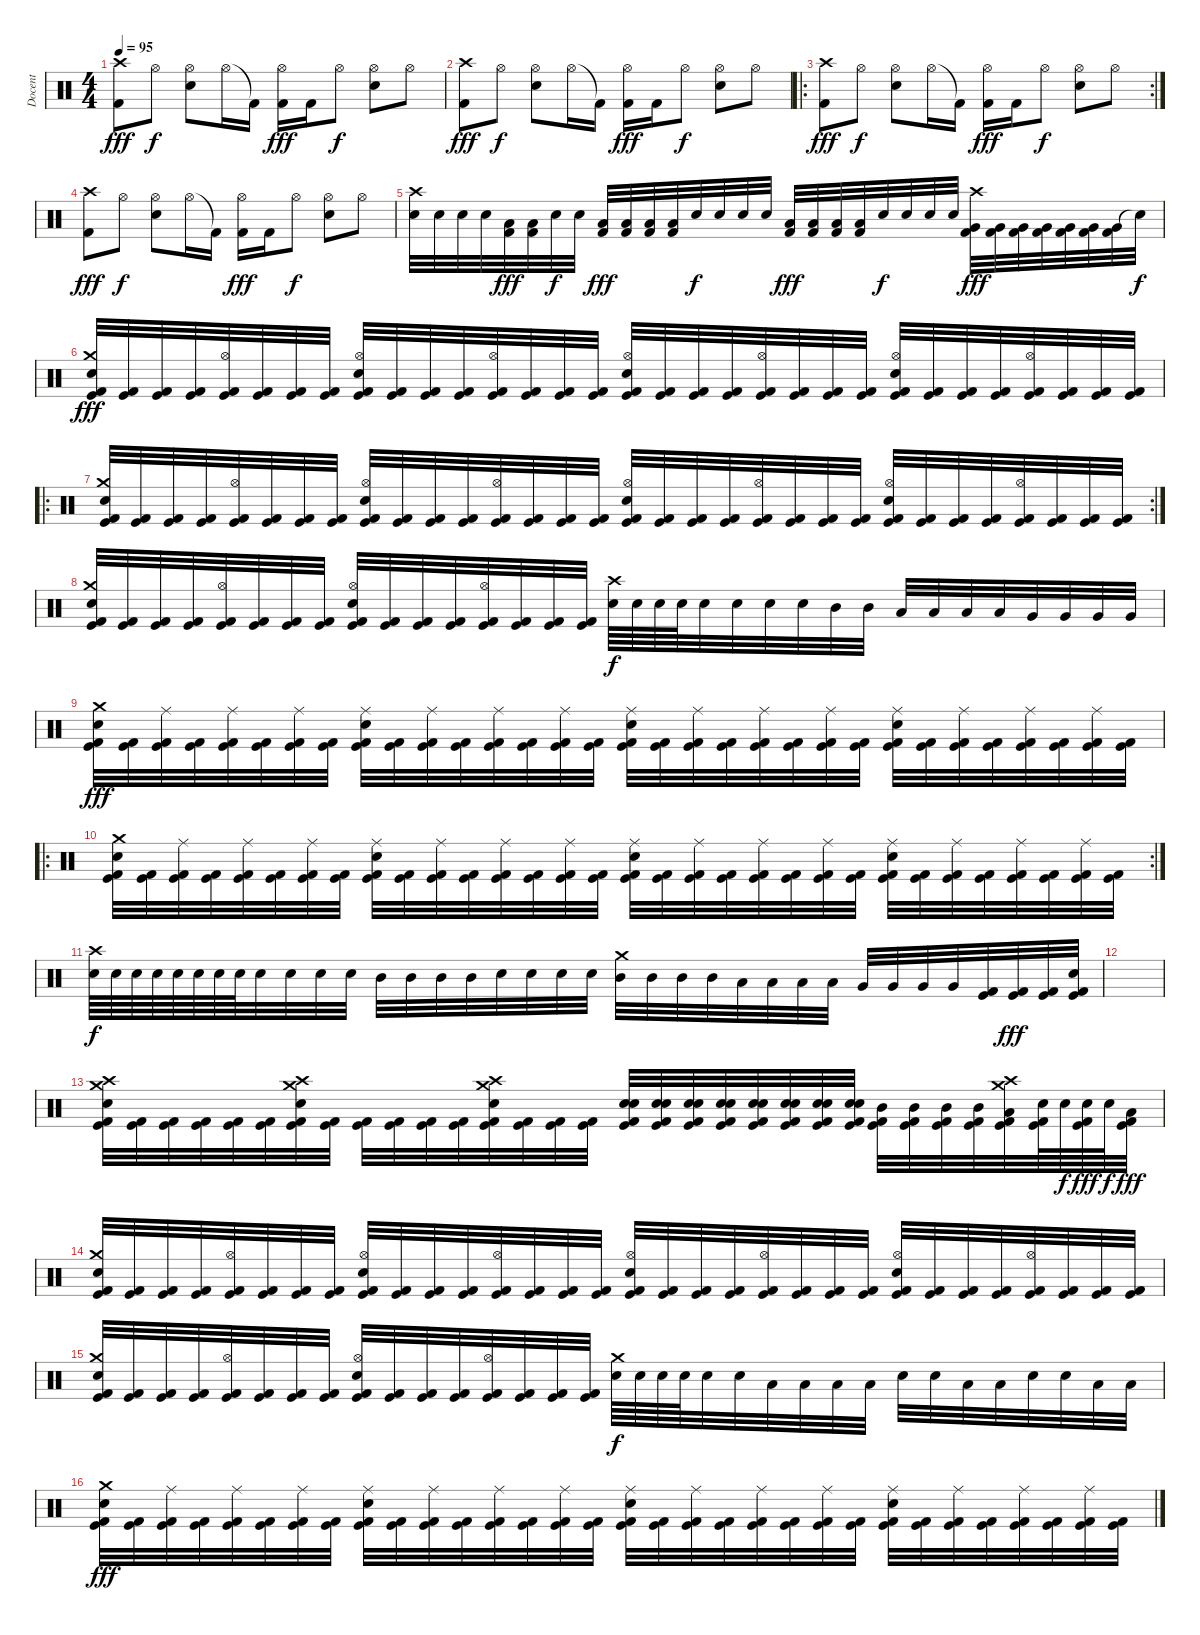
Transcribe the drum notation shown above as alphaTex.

\track ("Docent" "Docent") {instrument percussion}
\staff {score}
\articulation defaults
\ts (4 4)
\tempo 95
\clef neutral
\ks c
("Crash high (hit)" "Kick (hit) 2").8{dy fff volume 0} "Hi-Hat (open)".8{dy f volume 16} ("Hi-Hat (open)" "Electric Snare (hit)").8 "Hi-Hat (open)".16 "Kick (hit) 2"{t}.16 ("Hi-Hat (open)" "Kick (hit) 2").16{dy fff} "Kick (hit) 2".16 "Hi-Hat (open)".8{dy f} ("Hi-Hat (open)" "Electric Snare (hit)").8 "Hi-Hat (open)".8 |
("Crash high (hit)" "Kick (hit) 2").8{dy fff} "Hi-Hat (open)".8{dy f} ("Hi-Hat (open)" "Electric Snare (hit)").8 "Hi-Hat (open)".16 "Kick (hit) 2"{t}.16 ("Hi-Hat (open)" "Kick (hit) 2").16{dy fff} "Kick (hit) 2".16 "Hi-Hat (open)".8{dy f} ("Hi-Hat (open)" "Electric Snare (hit)").8 "Hi-Hat (open)".8 |
\ro
\rc 2
("Crash high (hit)" "Kick (hit) 2").8{dy fff} "Hi-Hat (open)".8{dy f} ("Hi-Hat (open)" "Electric Snare (hit)").8 "Hi-Hat (open)".16 "Kick (hit) 2"{t}.16 ("Hi-Hat (open)" "Kick (hit) 2").16{dy fff} "Kick (hit) 2".16 "Hi-Hat (open)".8{dy f} ("Hi-Hat (open)" "Electric Snare (hit)").8 "Hi-Hat (open)".8 |
("Crash high (hit)" "Kick (hit) 2").8{dy fff} "Hi-Hat (open)".8{dy f} ("Hi-Hat (open)" "Electric Snare (hit)").8 "Hi-Hat (open)".16 "Kick (hit) 2"{t}.16 ("Hi-Hat (open)" "Kick (hit) 2").16{dy fff} "Kick (hit) 2".16 "Hi-Hat (open)".8{dy f} ("Hi-Hat (open)" "Electric Snare (hit)").8 "Hi-Hat (open)".8 |
("Crash high (hit)" "Electric Snare (hit)").32 "Electric Snare (hit)".32 "Electric Snare (hit)".32 "Electric Snare (hit)".32 ("Low Tom (hit)" "Kick (hit) 2").32{dy fff} ("Low Tom (hit)" "Kick (hit) 2").32 "Electric Snare (hit)".32{dy f} "Electric Snare (hit)".32 ("Low Tom (hit)" "Kick (hit) 2").32{dy fff} ("Low Tom (hit)" "Kick (hit) 2").32 ("Low Tom (hit)" "Kick (hit) 2").32 ("Low Tom (hit)" "Kick (hit) 2").32 "Electric Snare (hit)".32{dy f} "Electric Snare (hit)".32 "Electric Snare (hit)".32 "Electric Snare (hit)".32 ("Low Tom (hit)" "Kick (hit) 2").32{dy fff} ("Low Tom (hit)" "Kick (hit) 2").32 ("Low Tom (hit)" "Kick (hit) 2").32 ("Low Tom (hit)" "Kick (hit) 2").32 "Electric Snare (hit)".32{dy f} "Electric Snare (hit)".32 "Electric Snare (hit)".32 "Electric Snare (hit)".32 ("Crash high (hit)" "Kick (hit) 2" "Very Low Tom (hit)").32{dy fff} ("Kick (hit) 2" "Very Low Tom (hit)").32 ("Kick (hit) 2" "Very Low Tom (hit)").32 ("Kick (hit) 2" "Very Low Tom (hit)").32 ("Kick (hit) 2" "Very Low Tom (hit)").32 ("Kick (hit) 2" "Very Low Tom (hit)").32 ("Kick (hit) 2" "Very Low Tom (hit)").32 "Snare (hit)"{t}.32{dy f} |
("Crash medium (hit)" "Electric Snare (hit)" "Kick (hit)" "Kick (hit) 2").32{dy fff} ("Kick (hit)" "Kick (hit) 2").32 ("Kick (hit)" "Kick (hit) 2").32 ("Kick (hit)" "Kick (hit) 2").32 ("Hi-Hat (open)" "Kick (hit)" "Kick (hit) 2").32 ("Kick (hit)" "Kick (hit) 2").32 ("Kick (hit)" "Kick (hit) 2").32 ("Kick (hit)" "Kick (hit) 2").32 ("Hi-Hat (open)" "Electric Snare (hit)" "Kick (hit)" "Kick (hit) 2").32 ("Kick (hit)" "Kick (hit) 2").32 ("Kick (hit)" "Kick (hit) 2").32 ("Kick (hit)" "Kick (hit) 2").32 ("Hi-Hat (open)" "Kick (hit)" "Kick (hit) 2").32 ("Kick (hit)" "Kick (hit) 2").32 ("Kick (hit)" "Kick (hit) 2").32 ("Kick (hit)" "Kick (hit) 2").32 ("Hi-Hat (open)" "Electric Snare (hit)" "Kick (hit)" "Kick (hit) 2").32 ("Kick (hit)" "Kick (hit) 2").32 ("Kick (hit)" "Kick (hit) 2").32 ("Kick (hit)" "Kick (hit) 2").32 ("Hi-Hat (open)" "Kick (hit)" "Kick (hit) 2").32 ("Kick (hit)" "Kick (hit) 2").32 ("Kick (hit)" "Kick (hit) 2").32 ("Kick (hit)" "Kick (hit) 2").32 ("Hi-Hat (open)" "Electric Snare (hit)" "Kick (hit)" "Kick (hit) 2").32 ("Kick (hit)" "Kick (hit) 2").32 ("Kick (hit)" "Kick (hit) 2").32 ("Kick (hit)" "Kick (hit) 2").32 ("Hi-Hat (open)" "Kick (hit)" "Kick (hit) 2").32 ("Kick (hit)" "Kick (hit) 2").32 ("Kick (hit)" "Kick (hit) 2").32 ("Kick (hit)" "Kick (hit) 2").32 |
\ro
\rc 2
("Crash medium (hit)" "Electric Snare (hit)" "Kick (hit)" "Kick (hit) 2").32 ("Kick (hit)" "Kick (hit) 2").32 ("Kick (hit)" "Kick (hit) 2").32 ("Kick (hit)" "Kick (hit) 2").32 ("Hi-Hat (open)" "Kick (hit)" "Kick (hit) 2").32 ("Kick (hit)" "Kick (hit) 2").32 ("Kick (hit)" "Kick (hit) 2").32 ("Kick (hit)" "Kick (hit) 2").32 ("Hi-Hat (open)" "Electric Snare (hit)" "Kick (hit)" "Kick (hit) 2").32 ("Kick (hit)" "Kick (hit) 2").32 ("Kick (hit)" "Kick (hit) 2").32 ("Kick (hit)" "Kick (hit) 2").32 ("Hi-Hat (open)" "Kick (hit)" "Kick (hit) 2").32 ("Kick (hit)" "Kick (hit) 2").32 ("Kick (hit)" "Kick (hit) 2").32 ("Kick (hit)" "Kick (hit) 2").32 ("Hi-Hat (open)" "Electric Snare (hit)" "Kick (hit)" "Kick (hit) 2").32 ("Kick (hit)" "Kick (hit) 2").32 ("Kick (hit)" "Kick (hit) 2").32 ("Kick (hit)" "Kick (hit) 2").32 ("Hi-Hat (open)" "Kick (hit)" "Kick (hit) 2").32 ("Kick (hit)" "Kick (hit) 2").32 ("Kick (hit)" "Kick (hit) 2").32 ("Kick (hit)" "Kick (hit) 2").32 ("Hi-Hat (open)" "Electric Snare (hit)" "Kick (hit)" "Kick (hit) 2").32 ("Kick (hit)" "Kick (hit) 2").32 ("Kick (hit)" "Kick (hit) 2").32 ("Kick (hit)" "Kick (hit) 2").32 ("Hi-Hat (open)" "Kick (hit)" "Kick (hit) 2").32 ("Kick (hit)" "Kick (hit) 2").32 ("Kick (hit)" "Kick (hit) 2").32 ("Kick (hit)" "Kick (hit) 2").32 |
("Crash medium (hit)" "Electric Snare (hit)" "Kick (hit)" "Kick (hit) 2").32 ("Kick (hit)" "Kick (hit) 2").32 ("Kick (hit)" "Kick (hit) 2").32 ("Kick (hit)" "Kick (hit) 2").32 ("Hi-Hat (open)" "Kick (hit)" "Kick (hit) 2").32 ("Kick (hit)" "Kick (hit) 2").32 ("Kick (hit)" "Kick (hit) 2").32 ("Kick (hit)" "Kick (hit) 2").32 ("Hi-Hat (open)" "Electric Snare (hit)" "Kick (hit)" "Kick (hit) 2").32 ("Kick (hit)" "Kick (hit) 2").32 ("Kick (hit)" "Kick (hit) 2").32 ("Kick (hit)" "Kick (hit) 2").32 ("Hi-Hat (open)" "Kick (hit)" "Kick (hit) 2").32 ("Kick (hit)" "Kick (hit) 2").32 ("Kick (hit)" "Kick (hit) 2").32 ("Kick (hit)" "Kick (hit) 2").32 ("Crash high (hit)" "Electric Snare (hit)").64{dy f} "Electric Snare (hit)".64 "Electric Snare (hit)".64 "Electric Snare (hit)".64 "Electric Snare (hit)".32 "Electric Snare (hit)".32 "Electric Snare (hit)".32 "Electric Snare (hit)".32 "Mid Tom (hit)".32 "Mid Tom (hit)".32 "Low Tom (hit)".32 "Low Tom (hit)".32 "Low Tom (hit)".32 "Low Tom (hit)".32 "Very Low Tom (hit)".32 "Very Low Tom (hit)".32 "Very Low Tom (hit)".32 "Very Low Tom (hit)".32 |
("Crash medium (hit)" "Electric Snare (hit)" "Kick (hit)" "Kick (hit) 2").32{dy fff} ("Kick (hit)" "Kick (hit) 2").32 ("Ride (middle)" "Kick (hit)" "Kick (hit) 2").32 ("Kick (hit)" "Kick (hit) 2").32 ("Ride (middle)" "Kick (hit)" "Kick (hit) 2").32 ("Kick (hit)" "Kick (hit) 2").32 ("Ride (middle)" "Kick (hit)" "Kick (hit) 2").32 ("Kick (hit)" "Kick (hit) 2").32 ("Ride (middle)" "Electric Snare (hit)" "Kick (hit)" "Kick (hit) 2").32 ("Kick (hit)" "Kick (hit) 2").32 ("Ride (middle)" "Kick (hit)" "Kick (hit) 2").32 ("Kick (hit)" "Kick (hit) 2").32 ("Ride (middle)" "Kick (hit)" "Kick (hit) 2").32 ("Kick (hit)" "Kick (hit) 2").32 ("Ride (middle)" "Kick (hit)" "Kick (hit) 2").32 ("Kick (hit)" "Kick (hit) 2").32 ("Ride (middle)" "Electric Snare (hit)" "Kick (hit)" "Kick (hit) 2").32 ("Kick (hit)" "Kick (hit) 2").32 ("Ride (middle)" "Kick (hit)" "Kick (hit) 2").32 ("Kick (hit)" "Kick (hit) 2").32 ("Ride (middle)" "Kick (hit)" "Kick (hit) 2").32 ("Kick (hit)" "Kick (hit) 2").32 ("Ride (middle)" "Kick (hit)" "Kick (hit) 2").32 ("Kick (hit)" "Kick (hit) 2").32 ("Ride (middle)" "Electric Snare (hit)" "Kick (hit)" "Kick (hit) 2").32 ("Kick (hit)" "Kick (hit) 2").32 ("Ride (middle)" "Kick (hit)" "Kick (hit) 2").32 ("Kick (hit)" "Kick (hit) 2").32 ("Ride (middle)" "Kick (hit)" "Kick (hit) 2").32 ("Kick (hit)" "Kick (hit) 2").32 ("Ride (middle)" "Kick (hit)" "Kick (hit) 2").32 ("Kick (hit)" "Kick (hit) 2").32 |
\ro
\rc 2
("Crash medium (hit)" "Electric Snare (hit)" "Kick (hit)" "Kick (hit) 2").32 ("Kick (hit)" "Kick (hit) 2").32 ("Ride (middle)" "Kick (hit)" "Kick (hit) 2").32 ("Kick (hit)" "Kick (hit) 2").32 ("Ride (middle)" "Kick (hit)" "Kick (hit) 2").32 ("Kick (hit)" "Kick (hit) 2").32 ("Ride (middle)" "Kick (hit)" "Kick (hit) 2").32 ("Kick (hit)" "Kick (hit) 2").32 ("Ride (middle)" "Electric Snare (hit)" "Kick (hit)" "Kick (hit) 2").32 ("Kick (hit)" "Kick (hit) 2").32 ("Ride (middle)" "Kick (hit)" "Kick (hit) 2").32 ("Kick (hit)" "Kick (hit) 2").32 ("Ride (middle)" "Kick (hit)" "Kick (hit) 2").32 ("Kick (hit)" "Kick (hit) 2").32 ("Ride (middle)" "Kick (hit)" "Kick (hit) 2").32 ("Kick (hit)" "Kick (hit) 2").32 ("Ride (middle)" "Electric Snare (hit)" "Kick (hit)" "Kick (hit) 2").32 ("Kick (hit)" "Kick (hit) 2").32 ("Ride (middle)" "Kick (hit)" "Kick (hit) 2").32 ("Kick (hit)" "Kick (hit) 2").32 ("Ride (middle)" "Kick (hit)" "Kick (hit) 2").32 ("Kick (hit)" "Kick (hit) 2").32 ("Ride (middle)" "Kick (hit)" "Kick (hit) 2").32 ("Kick (hit)" "Kick (hit) 2").32 ("Ride (middle)" "Electric Snare (hit)" "Kick (hit)" "Kick (hit) 2").32 ("Kick (hit)" "Kick (hit) 2").32 ("Ride (middle)" "Kick (hit)" "Kick (hit) 2").32 ("Kick (hit)" "Kick (hit) 2").32 ("Ride (middle)" "Kick (hit)" "Kick (hit) 2").32 ("Kick (hit)" "Kick (hit) 2").32 ("Ride (middle)" "Kick (hit)" "Kick (hit) 2").32 ("Kick (hit)" "Kick (hit) 2").32 |
("Crash high (hit)" "Electric Snare (hit)").64{dy f} "Electric Snare (hit)".64 "Electric Snare (hit)".64 "Electric Snare (hit)".64 "Electric Snare (hit)".64 "Electric Snare (hit)".64 "Electric Snare (hit)".64 "Electric Snare (hit)".64 "Electric Snare (hit)".32 "Electric Snare (hit)".32 "Electric Snare (hit)".32 "Electric Snare (hit)".32 "Mid Tom (hit)".32 "Mid Tom (hit)".32 "Mid Tom (hit)".32 "Mid Tom (hit)".32 "Electric Snare (hit)".32 "Electric Snare (hit)".32 "Electric Snare (hit)".32 "Electric Snare (hit)".32 ("Crash medium (hit)" "Mid Tom (hit)").32 "Mid Tom (hit)".32 "Mid Tom (hit)".32 "Mid Tom (hit)".32 "Low Tom (hit)".32 "Low Tom (hit)".32 "Low Tom (hit)".32 "Low Tom (hit)".32 "Very Low Tom (hit)".32 "Very Low Tom (hit)".32 "Very Low Tom (hit)".32 "Very Low Tom (hit)".32 ("Kick (hit) 2" "Kick (hit)").32 ("Kick (hit)" "Kick (hit) 2").32{dy fff} ("Kick (hit)" "Kick (hit) 2").32 ("Kick (hit)" "Kick (hit) 2" "Electric Snare (hit)").32 |
|
("Kick (hit) 2" "Kick (hit)" "Electric Snare (hit)" "Crash high (hit)" "Crash medium (hit)").32 ("Kick (hit) 2" "Kick (hit)").32 ("Kick (hit) 2" "Kick (hit)").32 ("Kick (hit) 2" "Kick (hit)").32 ("Kick (hit) 2" "Kick (hit)").32 ("Kick (hit) 2" "Kick (hit)").32 ("Kick (hit) 2" "Kick (hit)" "Electric Snare (hit)" "Crash high (hit)" "Crash medium (hit)").32 ("Kick (hit) 2" "Kick (hit)").32 ("Kick (hit) 2" "Kick (hit)").32 ("Kick (hit) 2" "Kick (hit)").32 ("Kick (hit) 2" "Kick (hit)").32 ("Kick (hit) 2" "Kick (hit)").32 ("Kick (hit) 2" "Kick (hit)" "Electric Snare (hit)" "Crash high (hit)" "Crash medium (hit)").32 ("Kick (hit) 2" "Kick (hit)").32 ("Kick (hit) 2" "Kick (hit)").32 ("Kick (hit) 2" "Kick (hit)").32 ("Kick (hit) 2" "Kick (hit)" "Electric Snare (hit)" "Snare (hit) 2").32 ("Kick (hit) 2" "Kick (hit)" "Electric Snare (hit)" "Snare (hit) 2").32 ("Kick (hit) 2" "Kick (hit)" "Electric Snare (hit)" "Snare (hit) 2").32 ("Kick (hit) 2" "Kick (hit)" "Electric Snare (hit)" "Snare (hit) 2").32 ("Kick (hit) 2" "Kick (hit)" "Electric Snare (hit)" "Snare (hit) 2").32 ("Kick (hit) 2" "Kick (hit)" "Electric Snare (hit)" "Snare (hit) 2").32 ("Kick (hit) 2" "Kick (hit)" "Electric Snare (hit)" "Snare (hit) 2").32 ("Kick (hit) 2" "Kick (hit)" "Electric Snare (hit)" "Snare (hit) 2").32 ("Kick (hit) 2" "Kick (hit)" "Mid Tom (hit)").32 ("Kick (hit) 2" "Kick (hit)" "Mid Tom (hit)").32 ("Kick (hit) 2" "Kick (hit)" "Mid Tom (hit)").32 ("Kick (hit) 2" "Kick (hit)" "Mid Tom (hit)").32 ("Kick (hit) 2" "Kick (hit)" "Low Tom (hit)" "Crash medium (hit)" "Crash high (hit)").32 ("Kick (hit) 2" "Kick (hit)" "Electric Snare (hit)").64 "Electric Snare (hit)".64{dy f} ("Kick (hit) 2" "Kick (hit)" "Electric Snare (hit)").64{dy fff} "Electric Snare (hit)".64{dy f} ("Kick (hit) 2" "Kick (hit)" "Low Tom (hit)").32{dy fff} |
("Crash medium (hit)" "Electric Snare (hit)" "Kick (hit)" "Kick (hit) 2").32 ("Kick (hit)" "Kick (hit) 2").32 ("Kick (hit)" "Kick (hit) 2").32 ("Kick (hit)" "Kick (hit) 2").32 ("Hi-Hat (open)" "Kick (hit)" "Kick (hit) 2").32 ("Kick (hit)" "Kick (hit) 2").32 ("Kick (hit)" "Kick (hit) 2").32 ("Kick (hit)" "Kick (hit) 2").32 ("Hi-Hat (open)" "Electric Snare (hit)" "Kick (hit)" "Kick (hit) 2").32 ("Kick (hit)" "Kick (hit) 2").32 ("Kick (hit)" "Kick (hit) 2").32 ("Kick (hit)" "Kick (hit) 2").32 ("Hi-Hat (open)" "Kick (hit)" "Kick (hit) 2").32 ("Kick (hit)" "Kick (hit) 2").32 ("Kick (hit)" "Kick (hit) 2").32 ("Kick (hit)" "Kick (hit) 2").32 ("Hi-Hat (open)" "Electric Snare (hit)" "Kick (hit)" "Kick (hit) 2").32 ("Kick (hit)" "Kick (hit) 2").32 ("Kick (hit)" "Kick (hit) 2").32 ("Kick (hit)" "Kick (hit) 2").32 ("Hi-Hat (open)" "Kick (hit)" "Kick (hit) 2").32 ("Kick (hit)" "Kick (hit) 2").32 ("Kick (hit)" "Kick (hit) 2").32 ("Kick (hit)" "Kick (hit) 2").32 ("Hi-Hat (open)" "Electric Snare (hit)" "Kick (hit)" "Kick (hit) 2").32 ("Kick (hit)" "Kick (hit) 2").32 ("Kick (hit)" "Kick (hit) 2").32 ("Kick (hit)" "Kick (hit) 2").32 ("Hi-Hat (open)" "Kick (hit)" "Kick (hit) 2").32 ("Kick (hit)" "Kick (hit) 2").32 ("Kick (hit)" "Kick (hit) 2").32 ("Kick (hit)" "Kick (hit) 2").32 |
("Crash medium (hit)" "Electric Snare (hit)" "Kick (hit)" "Kick (hit) 2").32 ("Kick (hit)" "Kick (hit) 2").32 ("Kick (hit)" "Kick (hit) 2").32 ("Kick (hit)" "Kick (hit) 2").32 ("Hi-Hat (open)" "Kick (hit)" "Kick (hit) 2").32 ("Kick (hit)" "Kick (hit) 2").32 ("Kick (hit)" "Kick (hit) 2").32 ("Kick (hit)" "Kick (hit) 2").32 ("Hi-Hat (open)" "Electric Snare (hit)" "Kick (hit)" "Kick (hit) 2").32 ("Kick (hit)" "Kick (hit) 2").32 ("Kick (hit)" "Kick (hit) 2").32 ("Kick (hit)" "Kick (hit) 2").32 ("Hi-Hat (open)" "Kick (hit)" "Kick (hit) 2").32 ("Kick (hit)" "Kick (hit) 2").32 ("Kick (hit)" "Kick (hit) 2").32 ("Kick (hit)" "Kick (hit) 2").32 ("Crash medium (hit)" "Electric Snare (hit)").64{dy f} "Electric Snare (hit)".64 "Electric Snare (hit)".64 "Electric Snare (hit)".64 "Electric Snare (hit)".32 "Electric Snare (hit)".32 "Low Tom (hit)".32 "Low Tom (hit)".32 "Low Tom (hit)".32 "Low Tom (hit)".32 "Electric Snare (hit)".32 "Electric Snare (hit)".32 "Low Tom (hit)".32 "Low Tom (hit)".32 "Electric Snare (hit)".32 "Electric Snare (hit)".32 "Low Tom (hit)".32 "Low Tom (hit)".32 |
("Crash medium (hit)" "Electric Snare (hit)" "Kick (hit)" "Kick (hit) 2").32{dy fff} ("Kick (hit)" "Kick (hit) 2").32 ("Ride (middle)" "Kick (hit)" "Kick (hit) 2").32 ("Kick (hit)" "Kick (hit) 2").32 ("Ride (middle)" "Kick (hit)" "Kick (hit) 2").32 ("Kick (hit)" "Kick (hit) 2").32 ("Ride (middle)" "Kick (hit)" "Kick (hit) 2").32 ("Kick (hit)" "Kick (hit) 2").32 ("Ride (middle)" "Electric Snare (hit)" "Kick (hit)" "Kick (hit) 2").32 ("Kick (hit)" "Kick (hit) 2").32 ("Ride (middle)" "Kick (hit)" "Kick (hit) 2").32 ("Kick (hit)" "Kick (hit) 2").32 ("Ride (middle)" "Kick (hit)" "Kick (hit) 2").32 ("Kick (hit)" "Kick (hit) 2").32 ("Ride (middle)" "Kick (hit)" "Kick (hit) 2").32 ("Kick (hit)" "Kick (hit) 2").32 ("Ride (middle)" "Electric Snare (hit)" "Kick (hit)" "Kick (hit) 2").32 ("Kick (hit)" "Kick (hit) 2").32 ("Ride (middle)" "Kick (hit)" "Kick (hit) 2").32 ("Kick (hit)" "Kick (hit) 2").32 ("Ride (middle)" "Kick (hit)" "Kick (hit) 2").32 ("Kick (hit)" "Kick (hit) 2").32 ("Ride (middle)" "Kick (hit)" "Kick (hit) 2").32 ("Kick (hit)" "Kick (hit) 2").32 ("Ride (middle)" "Electric Snare (hit)" "Kick (hit)" "Kick (hit) 2").32 ("Kick (hit)" "Kick (hit) 2").32 ("Ride (middle)" "Kick (hit)" "Kick (hit) 2").32 ("Kick (hit)" "Kick (hit) 2").32 ("Ride (middle)" "Kick (hit)" "Kick (hit) 2").32 ("Kick (hit)" "Kick (hit) 2").32 ("Ride (middle)" "Kick (hit)" "Kick (hit) 2").32 ("Kick (hit)" "Kick (hit) 2").32
